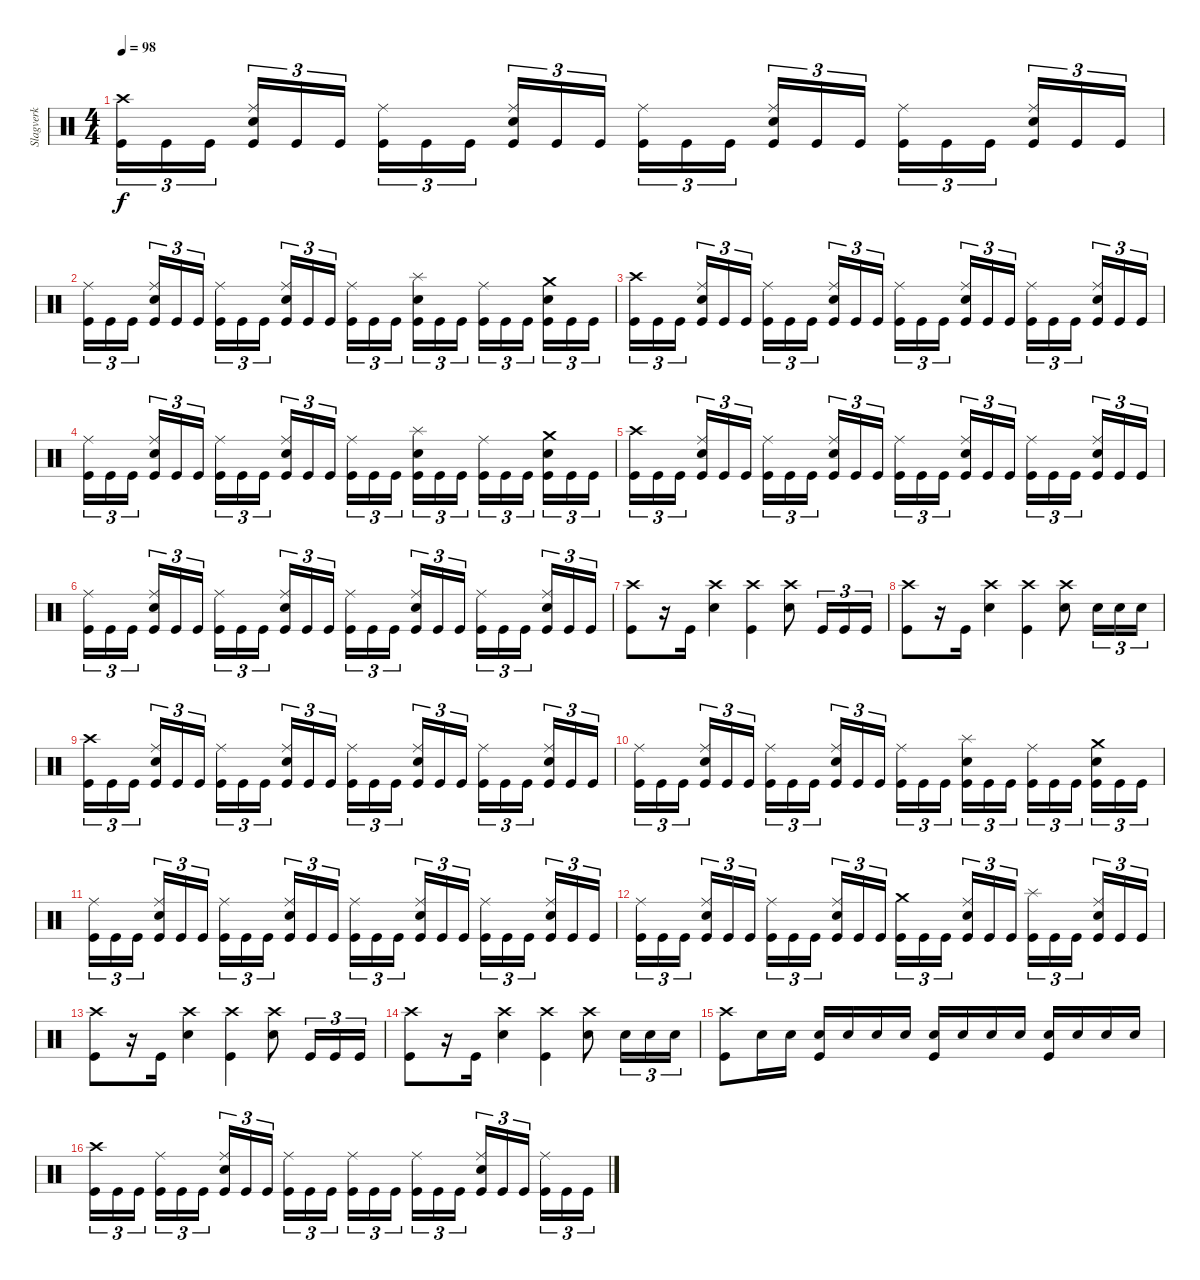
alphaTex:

\track ("Slagverk" "Slagverk") {instrument percussion}
\staff {score}
\articulation defaults
\ts (4 4)
\tempo 98
\clef neutral
\ks c
("Crash high (hit)" "Kick (hit)").16{tu (3 2) dy f} "Kick (hit)".16{tu (3 2)} "Kick (hit)".16{tu (3 2)} ("Ride (middle)" "Electric Snare (hit)" "Kick (hit)").16{tu (3 2)} "Kick (hit)".16{tu (3 2)} "Kick (hit)".16{tu (3 2)} ("Ride (middle)" "Kick (hit)").16{tu (3 2)} "Kick (hit)".16{tu (3 2)} "Kick (hit)".16{tu (3 2)} ("Ride (middle)" "Electric Snare (hit)" "Kick (hit)").16{tu (3 2)} "Kick (hit)".16{tu (3 2)} "Kick (hit)".16{tu (3 2)} ("Ride (middle)" "Kick (hit)").16{tu (3 2)} "Kick (hit)".16{tu (3 2)} "Kick (hit)".16{tu (3 2)} ("Ride (middle)" "Electric Snare (hit)" "Kick (hit)").16{tu (3 2)} "Kick (hit)".16{tu (3 2)} "Kick (hit)".16{tu (3 2)} ("Ride (middle)" "Kick (hit)").16{tu (3 2)} "Kick (hit)".16{tu (3 2)} "Kick (hit)".16{tu (3 2)} ("Ride (middle)" "Electric Snare (hit)" "Kick (hit)").16{tu (3 2)} "Kick (hit)".16{tu (3 2)} "Kick (hit)".16{tu (3 2)} |
("Ride (middle)" "Kick (hit)").16{tu (3 2)} "Kick (hit)".16{tu (3 2)} "Kick (hit)".16{tu (3 2)} ("Ride (middle)" "Electric Snare (hit)" "Kick (hit)").16{tu (3 2)} "Kick (hit)".16{tu (3 2)} "Kick (hit)".16{tu (3 2)} ("Ride (middle)" "Kick (hit)").16{tu (3 2)} "Kick (hit)".16{tu (3 2)} "Kick (hit)".16{tu (3 2)} ("Ride (middle)" "Electric Snare (hit)" "Kick (hit)").16{tu (3 2)} "Kick (hit)".16{tu (3 2)} "Kick (hit)".16{tu (3 2)} ("Ride (middle)" "Kick (hit)").16{tu (3 2)} "Kick (hit)".16{tu (3 2)} "Kick (hit)".16{tu (3 2)} ("Splash (hit)" "Electric Snare (hit)" "Kick (hit)").16{tu (3 2)} "Kick (hit)".16{tu (3 2)} "Kick (hit)".16{tu (3 2)} ("Ride (middle)" "Kick (hit)").16{tu (3 2)} "Kick (hit)".16{tu (3 2)} "Kick (hit)".16{tu (3 2)} ("Crash medium (hit)" "Electric Snare (hit)" "Kick (hit)").16{tu (3 2)} "Kick (hit)".16{tu (3 2)} "Kick (hit)".16{tu (3 2)} |
("Crash high (hit)" "Kick (hit)").16{tu (3 2)} "Kick (hit)".16{tu (3 2)} "Kick (hit)".16{tu (3 2)} ("Ride (middle)" "Electric Snare (hit)" "Kick (hit)").16{tu (3 2)} "Kick (hit)".16{tu (3 2)} "Kick (hit)".16{tu (3 2)} ("Ride (middle)" "Kick (hit)").16{tu (3 2)} "Kick (hit)".16{tu (3 2)} "Kick (hit)".16{tu (3 2)} ("Ride (middle)" "Electric Snare (hit)" "Kick (hit)").16{tu (3 2)} "Kick (hit)".16{tu (3 2)} "Kick (hit)".16{tu (3 2)} ("Ride (middle)" "Kick (hit)").16{tu (3 2)} "Kick (hit)".16{tu (3 2)} "Kick (hit)".16{tu (3 2)} ("Ride (middle)" "Electric Snare (hit)" "Kick (hit)").16{tu (3 2)} "Kick (hit)".16{tu (3 2)} "Kick (hit)".16{tu (3 2)} ("Ride (middle)" "Kick (hit)").16{tu (3 2)} "Kick (hit)".16{tu (3 2)} "Kick (hit)".16{tu (3 2)} ("Ride (middle)" "Electric Snare (hit)" "Kick (hit)").16{tu (3 2)} "Kick (hit)".16{tu (3 2)} "Kick (hit)".16{tu (3 2)} |
("Ride (middle)" "Kick (hit)").16{tu (3 2)} "Kick (hit)".16{tu (3 2)} "Kick (hit)".16{tu (3 2)} ("Ride (middle)" "Electric Snare (hit)" "Kick (hit)").16{tu (3 2)} "Kick (hit)".16{tu (3 2)} "Kick (hit)".16{tu (3 2)} ("Ride (middle)" "Kick (hit)").16{tu (3 2)} "Kick (hit)".16{tu (3 2)} "Kick (hit)".16{tu (3 2)} ("Ride (middle)" "Electric Snare (hit)" "Kick (hit)").16{tu (3 2)} "Kick (hit)".16{tu (3 2)} "Kick (hit)".16{tu (3 2)} ("Ride (middle)" "Kick (hit)").16{tu (3 2)} "Kick (hit)".16{tu (3 2)} "Kick (hit)".16{tu (3 2)} ("Splash (hit)" "Electric Snare (hit)" "Kick (hit)").16{tu (3 2)} "Kick (hit)".16{tu (3 2)} "Kick (hit)".16{tu (3 2)} ("Ride (middle)" "Kick (hit)").16{tu (3 2)} "Kick (hit)".16{tu (3 2)} "Kick (hit)".16{tu (3 2)} ("Crash medium (hit)" "Electric Snare (hit)" "Kick (hit)").16{tu (3 2)} "Kick (hit)".16{tu (3 2)} "Kick (hit)".16{tu (3 2)} |
("Crash high (hit)" "Kick (hit)").16{tu (3 2)} "Kick (hit)".16{tu (3 2)} "Kick (hit)".16{tu (3 2)} ("Ride (middle)" "Electric Snare (hit)" "Kick (hit)").16{tu (3 2)} "Kick (hit)".16{tu (3 2)} "Kick (hit)".16{tu (3 2)} ("Ride (middle)" "Kick (hit)").16{tu (3 2)} "Kick (hit)".16{tu (3 2)} "Kick (hit)".16{tu (3 2)} ("Ride (middle)" "Electric Snare (hit)" "Kick (hit)").16{tu (3 2)} "Kick (hit)".16{tu (3 2)} "Kick (hit)".16{tu (3 2)} ("Ride (middle)" "Kick (hit)").16{tu (3 2)} "Kick (hit)".16{tu (3 2)} "Kick (hit)".16{tu (3 2)} ("Ride (middle)" "Electric Snare (hit)" "Kick (hit)").16{tu (3 2)} "Kick (hit)".16{tu (3 2)} "Kick (hit)".16{tu (3 2)} ("Ride (middle)" "Kick (hit)").16{tu (3 2)} "Kick (hit)".16{tu (3 2)} "Kick (hit)".16{tu (3 2)} ("Ride (middle)" "Electric Snare (hit)" "Kick (hit)").16{tu (3 2)} "Kick (hit)".16{tu (3 2)} "Kick (hit)".16{tu (3 2)} |
("Ride (middle)" "Kick (hit)").16{tu (3 2)} "Kick (hit)".16{tu (3 2)} "Kick (hit)".16{tu (3 2)} ("Ride (middle)" "Electric Snare (hit)" "Kick (hit)").16{tu (3 2)} "Kick (hit)".16{tu (3 2)} "Kick (hit)".16{tu (3 2)} ("Ride (middle)" "Kick (hit)").16{tu (3 2)} "Kick (hit)".16{tu (3 2)} "Kick (hit)".16{tu (3 2)} ("Ride (middle)" "Electric Snare (hit)" "Kick (hit)").16{tu (3 2)} "Kick (hit)".16{tu (3 2)} "Kick (hit)".16{tu (3 2)} ("Ride (middle)" "Kick (hit)").16{tu (3 2)} "Kick (hit)".16{tu (3 2)} "Kick (hit)".16{tu (3 2)} ("Ride (middle)" "Electric Snare (hit)" "Kick (hit)").16{tu (3 2)} "Kick (hit)".16{tu (3 2)} "Kick (hit)".16{tu (3 2)} ("Ride (middle)" "Kick (hit)").16{tu (3 2)} "Kick (hit)".16{tu (3 2)} "Kick (hit)".16{tu (3 2)} ("Ride (middle)" "Electric Snare (hit)" "Kick (hit)").16{tu (3 2)} "Kick (hit)".16{tu (3 2)} "Kick (hit)".16{tu (3 2)} |
("Crash high (hit)" "Kick (hit)").8 r.16 "Kick (hit)".16 ("Crash high (hit)" "Electric Snare (hit)").4 ("Crash high (hit)" "Kick (hit)").4 ("Crash high (hit)" "Electric Snare (hit)").8 "Kick (hit)".16{tu (3 2)} "Kick (hit)".16{tu (3 2)} "Kick (hit)".16{tu (3 2)} |
("Crash high (hit)" "Kick (hit)").8 r.16 "Kick (hit)".16 ("Crash high (hit)" "Electric Snare (hit)").4 ("Crash high (hit)" "Kick (hit)").4 ("Crash high (hit)" "Electric Snare (hit)").8 "Electric Snare (hit)".16{tu (3 2)} "Electric Snare (hit)".16{tu (3 2)} "Electric Snare (hit)".16{tu (3 2)} |
("Crash high (hit)" "Kick (hit)").16{tu (3 2)} "Kick (hit)".16{tu (3 2)} "Kick (hit)".16{tu (3 2)} ("Ride (middle)" "Electric Snare (hit)" "Kick (hit)").16{tu (3 2)} "Kick (hit)".16{tu (3 2)} "Kick (hit)".16{tu (3 2)} ("Ride (middle)" "Kick (hit)").16{tu (3 2)} "Kick (hit)".16{tu (3 2)} "Kick (hit)".16{tu (3 2)} ("Ride (middle)" "Electric Snare (hit)" "Kick (hit)").16{tu (3 2)} "Kick (hit)".16{tu (3 2)} "Kick (hit)".16{tu (3 2)} ("Ride (middle)" "Kick (hit)").16{tu (3 2)} "Kick (hit)".16{tu (3 2)} "Kick (hit)".16{tu (3 2)} ("Ride (middle)" "Electric Snare (hit)" "Kick (hit)").16{tu (3 2)} "Kick (hit)".16{tu (3 2)} "Kick (hit)".16{tu (3 2)} ("Ride (middle)" "Kick (hit)").16{tu (3 2)} "Kick (hit)".16{tu (3 2)} "Kick (hit)".16{tu (3 2)} ("Ride (middle)" "Electric Snare (hit)" "Kick (hit)").16{tu (3 2)} "Kick (hit)".16{tu (3 2)} "Kick (hit)".16{tu (3 2)} |
("Ride (middle)" "Kick (hit)").16{tu (3 2)} "Kick (hit)".16{tu (3 2)} "Kick (hit)".16{tu (3 2)} ("Ride (middle)" "Electric Snare (hit)" "Kick (hit)").16{tu (3 2)} "Kick (hit)".16{tu (3 2)} "Kick (hit)".16{tu (3 2)} ("Ride (middle)" "Kick (hit)").16{tu (3 2)} "Kick (hit)".16{tu (3 2)} "Kick (hit)".16{tu (3 2)} ("Ride (middle)" "Electric Snare (hit)" "Kick (hit)").16{tu (3 2)} "Kick (hit)".16{tu (3 2)} "Kick (hit)".16{tu (3 2)} ("Ride (middle)" "Kick (hit)").16{tu (3 2)} "Kick (hit)".16{tu (3 2)} "Kick (hit)".16{tu (3 2)} ("Splash (hit)" "Electric Snare (hit)" "Kick (hit)").16{tu (3 2)} "Kick (hit)".16{tu (3 2)} "Kick (hit)".16{tu (3 2)} ("Ride (middle)" "Kick (hit)").16{tu (3 2)} "Kick (hit)".16{tu (3 2)} "Kick (hit)".16{tu (3 2)} ("Crash medium (hit)" "Electric Snare (hit)" "Kick (hit)").16{tu (3 2)} "Kick (hit)".16{tu (3 2)} "Kick (hit)".16{tu (3 2)} |
("Ride (middle)" "Kick (hit)").16{tu (3 2)} "Kick (hit)".16{tu (3 2)} "Kick (hit)".16{tu (3 2)} ("Ride (middle)" "Electric Snare (hit)" "Kick (hit)").16{tu (3 2)} "Kick (hit)".16{tu (3 2)} "Kick (hit)".16{tu (3 2)} ("Ride (middle)" "Kick (hit)").16{tu (3 2)} "Kick (hit)".16{tu (3 2)} "Kick (hit)".16{tu (3 2)} ("Ride (middle)" "Electric Snare (hit)" "Kick (hit)").16{tu (3 2)} "Kick (hit)".16{tu (3 2)} "Kick (hit)".16{tu (3 2)} ("Ride (middle)" "Kick (hit)").16{tu (3 2)} "Kick (hit)".16{tu (3 2)} "Kick (hit)".16{tu (3 2)} ("Ride (middle)" "Electric Snare (hit)" "Kick (hit)").16{tu (3 2)} "Kick (hit)".16{tu (3 2)} "Kick (hit)".16{tu (3 2)} ("Ride (middle)" "Kick (hit)").16{tu (3 2)} "Kick (hit)".16{tu (3 2)} "Kick (hit)".16{tu (3 2)} ("Ride (middle)" "Electric Snare (hit)" "Kick (hit)").16{tu (3 2)} "Kick (hit)".16{tu (3 2)} "Kick (hit)".16{tu (3 2)} |
("Ride (middle)" "Kick (hit)").16{tu (3 2)} "Kick (hit)".16{tu (3 2)} "Kick (hit)".16{tu (3 2)} ("Ride (middle)" "Electric Snare (hit)" "Kick (hit)").16{tu (3 2)} "Kick (hit)".16{tu (3 2)} "Kick (hit)".16{tu (3 2)} ("Ride (middle)" "Kick (hit)").16{tu (3 2)} "Kick (hit)".16{tu (3 2)} "Kick (hit)".16{tu (3 2)} ("Ride (middle)" "Electric Snare (hit)" "Kick (hit)").16{tu (3 2)} "Kick (hit)".16{tu (3 2)} "Kick (hit)".16{tu (3 2)} ("Crash medium (hit)" "Kick (hit)").16{tu (3 2)} "Kick (hit)".16{tu (3 2)} "Kick (hit)".16{tu (3 2)} ("Ride (middle)" "Electric Snare (hit)" "Kick (hit)").16{tu (3 2)} "Kick (hit)".16{tu (3 2)} "Kick (hit)".16{tu (3 2)} ("Splash (hit)" "Kick (hit)").16{tu (3 2)} "Kick (hit)".16{tu (3 2)} "Kick (hit)".16{tu (3 2)} ("Ride (middle)" "Electric Snare (hit)" "Kick (hit)").16{tu (3 2)} "Kick (hit)".16{tu (3 2)} "Kick (hit)".16{tu (3 2)} |
("Crash high (hit)" "Kick (hit)").8 r.16 "Kick (hit)".16 ("Crash high (hit)" "Electric Snare (hit)").4 ("Crash high (hit)" "Kick (hit)").4 ("Crash high (hit)" "Electric Snare (hit)").8 "Kick (hit)".16{tu (3 2)} "Kick (hit)".16{tu (3 2)} "Kick (hit)".16{tu (3 2)} |
("Crash high (hit)" "Kick (hit)").8 r.16 "Kick (hit)".16 ("Crash high (hit)" "Electric Snare (hit)").4 ("Crash high (hit)" "Kick (hit)").4 ("Crash high (hit)" "Electric Snare (hit)").8 "Electric Snare (hit)".16{tu (3 2)} "Electric Snare (hit)".16{tu (3 2)} "Electric Snare (hit)".16{tu (3 2)} |
("Crash high (hit)" "Kick (hit)").8 "Electric Snare (hit)".16 "Electric Snare (hit)".16 ("Electric Snare (hit)" "Kick (hit)").16 "Electric Snare (hit)".16 "Electric Snare (hit)".16 "Electric Snare (hit)".16 ("Electric Snare (hit)" "Kick (hit)").16 "Electric Snare (hit)".16 "Electric Snare (hit)".16 "Electric Snare (hit)".16 ("Electric Snare (hit)" "Kick (hit)").16 "Electric Snare (hit)".16 "Electric Snare (hit)".16 "Electric Snare (hit)".16 |
("Crash high (hit)" "Kick (hit)").16{tu (3 2)} "Kick (hit)".16{tu (3 2)} "Kick (hit)".16{tu (3 2)} ("Ride (middle)" "Kick (hit)").16{tu (3 2)} "Kick (hit)".16{tu (3 2)} "Kick (hit)".16{tu (3 2)} ("Ride (middle)" "Electric Snare (hit)" "Kick (hit)").16{tu (3 2)} "Kick (hit)".16{tu (3 2)} "Kick (hit)".16{tu (3 2)} ("Ride (middle)" "Kick (hit)").16{tu (3 2)} "Kick (hit)".16{tu (3 2)} "Kick (hit)".16{tu (3 2)} ("Ride (middle)" "Kick (hit)").16{tu (3 2)} "Kick (hit)".16{tu (3 2)} "Kick (hit)".16{tu (3 2)} ("Ride (middle)" "Kick (hit)").16{tu (3 2)} "Kick (hit)".16{tu (3 2)} "Kick (hit)".16{tu (3 2)} ("Ride (middle)" "Electric Snare (hit)" "Kick (hit)").16{tu (3 2)} "Kick (hit)".16{tu (3 2)} "Kick (hit)".16{tu (3 2)} ("Ride (middle)" "Kick (hit)").16{tu (3 2)} "Kick (hit)".16{tu (3 2)} "Kick (hit)".16{tu (3 2)}
